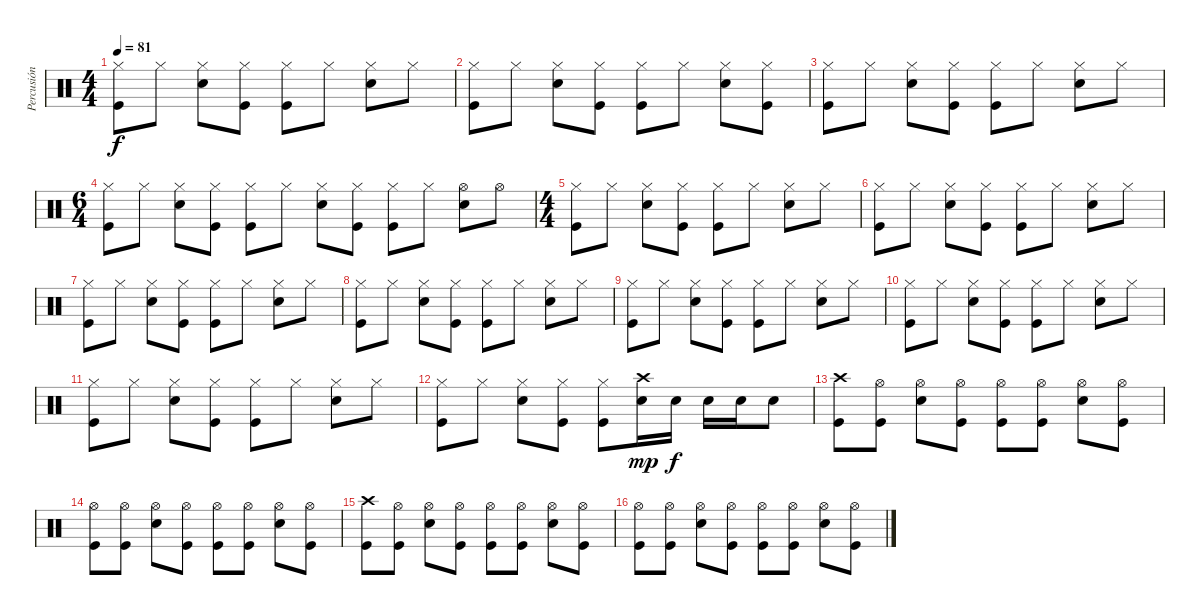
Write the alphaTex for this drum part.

\track ("Percusión" "Percusión") {instrument percussion}
\staff {score}
\articulation defaults
\ts (4 4)
\tempo 81
\clef neutral
\ks c
("Hi-Hat (closed)" "Kick (hit)").8{dy f} "Hi-Hat (closed)".8 ("Hi-Hat (closed)" "Electric Snare (hit)").8 ("Hi-Hat (closed)" "Kick (hit)").8 ("Hi-Hat (closed)" "Kick (hit)").8 "Hi-Hat (closed)".8 ("Hi-Hat (closed)" "Electric Snare (hit)").8 "Hi-Hat (closed)".8 |
("Hi-Hat (closed)" "Kick (hit)").8 "Hi-Hat (closed)".8 ("Hi-Hat (closed)" "Electric Snare (hit)").8 ("Hi-Hat (closed)" "Kick (hit)").8 ("Hi-Hat (closed)" "Kick (hit)").8 "Hi-Hat (closed)".8 ("Hi-Hat (closed)" "Electric Snare (hit)").8 ("Hi-Hat (closed)" "Kick (hit)").8 |
("Hi-Hat (closed)" "Kick (hit)").8 "Hi-Hat (closed)".8 ("Hi-Hat (closed)" "Electric Snare (hit)").8 ("Hi-Hat (closed)" "Kick (hit)").8 ("Hi-Hat (closed)" "Kick (hit)").8 "Hi-Hat (closed)".8 ("Hi-Hat (closed)" "Electric Snare (hit)").8 "Hi-Hat (closed)".8 |
\ts (6 4)
("Hi-Hat (closed)" "Kick (hit)").8 "Hi-Hat (closed)".8 ("Hi-Hat (closed)" "Electric Snare (hit)").8 ("Hi-Hat (closed)" "Kick (hit)").8 ("Hi-Hat (closed)" "Kick (hit)").8 "Hi-Hat (closed)".8 ("Hi-Hat (closed)" "Electric Snare (hit)").8 ("Hi-Hat (closed)" "Kick (hit)").8 ("Hi-Hat (closed)" "Kick (hit)").8 "Hi-Hat (closed)".8 ("Hi-Hat (open)" "Electric Snare (hit)").8 "Hi-Hat (open)".8 |
\ts (4 4)
("Hi-Hat (closed)" "Kick (hit)").8 "Hi-Hat (closed)".8 ("Hi-Hat (closed)" "Electric Snare (hit)").8 ("Hi-Hat (closed)" "Kick (hit)").8 ("Hi-Hat (closed)" "Kick (hit)").8 "Hi-Hat (closed)".8 ("Hi-Hat (closed)" "Electric Snare (hit)").8 "Hi-Hat (closed)".8 |
("Hi-Hat (closed)" "Kick (hit)").8 "Hi-Hat (closed)".8 ("Hi-Hat (closed)" "Electric Snare (hit)").8 ("Hi-Hat (closed)" "Kick (hit)").8 ("Hi-Hat (closed)" "Kick (hit)").8 "Hi-Hat (closed)".8 ("Hi-Hat (closed)" "Electric Snare (hit)").8 "Hi-Hat (closed)".8 |
("Hi-Hat (closed)" "Kick (hit)").8 "Hi-Hat (closed)".8 ("Hi-Hat (closed)" "Electric Snare (hit)").8 ("Hi-Hat (closed)" "Kick (hit)").8 ("Hi-Hat (closed)" "Kick (hit)").8 "Hi-Hat (closed)".8 ("Hi-Hat (closed)" "Electric Snare (hit)").8 "Hi-Hat (closed)".8 |
("Hi-Hat (closed)" "Kick (hit)").8 "Hi-Hat (closed)".8 ("Hi-Hat (closed)" "Electric Snare (hit)").8 ("Hi-Hat (closed)" "Kick (hit)").8 ("Hi-Hat (closed)" "Kick (hit)").8 "Hi-Hat (closed)".8 ("Hi-Hat (closed)" "Electric Snare (hit)").8 "Hi-Hat (closed)".8 |
("Hi-Hat (closed)" "Kick (hit)").8 "Hi-Hat (closed)".8 ("Hi-Hat (closed)" "Electric Snare (hit)").8 ("Hi-Hat (closed)" "Kick (hit)").8 ("Hi-Hat (closed)" "Kick (hit)").8 "Hi-Hat (closed)".8 ("Hi-Hat (closed)" "Electric Snare (hit)").8 "Hi-Hat (closed)".8 |
("Hi-Hat (closed)" "Kick (hit)").8 "Hi-Hat (closed)".8 ("Hi-Hat (closed)" "Electric Snare (hit)").8 ("Hi-Hat (closed)" "Kick (hit)").8 ("Hi-Hat (closed)" "Kick (hit)").8 "Hi-Hat (closed)".8 ("Hi-Hat (closed)" "Electric Snare (hit)").8 "Hi-Hat (closed)".8 |
("Hi-Hat (closed)" "Kick (hit)").8 "Hi-Hat (closed)".8 ("Hi-Hat (closed)" "Electric Snare (hit)").8 ("Hi-Hat (closed)" "Kick (hit)").8 ("Hi-Hat (closed)" "Kick (hit)").8 "Hi-Hat (closed)".8 ("Hi-Hat (closed)" "Electric Snare (hit)").8 "Hi-Hat (closed)".8 |
("Hi-Hat (closed)" "Kick (hit)").8 "Hi-Hat (closed)".8 ("Hi-Hat (closed)" "Electric Snare (hit)").8 ("Hi-Hat (closed)" "Kick (hit)").8 ("Hi-Hat (closed)" "Kick (hit)").8 ("Crash high (hit)" "Electric Snare (hit)").16{dy mp} "Electric Snare (hit)".16{dy f} "Electric Snare (hit)".16 "Electric Snare (hit)".16 "Electric Snare (hit)".8 |
("Crash high (hit)" "Kick (hit)").8 ("Hi-Hat (open)" "Kick (hit)").8 ("Hi-Hat (open)" "Electric Snare (hit)").8 ("Hi-Hat (open)" "Kick (hit)").8 ("Hi-Hat (open)" "Kick (hit)").8 ("Hi-Hat (open)" "Kick (hit)").8 ("Hi-Hat (open)" "Electric Snare (hit)").8 ("Hi-Hat (open)" "Kick (hit)").8 |
("Hi-Hat (open)" "Kick (hit)").8 ("Hi-Hat (open)" "Kick (hit)").8 ("Hi-Hat (open)" "Electric Snare (hit)").8 ("Hi-Hat (open)" "Kick (hit)").8 ("Hi-Hat (open)" "Kick (hit)").8 ("Hi-Hat (open)" "Kick (hit)").8 ("Hi-Hat (open)" "Electric Snare (hit)").8 ("Hi-Hat (open)" "Kick (hit)").8 |
("Crash high (hit)" "Kick (hit)").8 ("Hi-Hat (open)" "Kick (hit)").8 ("Hi-Hat (open)" "Electric Snare (hit)").8 ("Hi-Hat (open)" "Kick (hit)").8 ("Hi-Hat (open)" "Kick (hit)").8 ("Hi-Hat (open)" "Kick (hit)").8 ("Hi-Hat (open)" "Electric Snare (hit)").8 ("Hi-Hat (open)" "Kick (hit)").8 |
("Hi-Hat (open)" "Kick (hit)").8 ("Hi-Hat (open)" "Kick (hit)").8 ("Hi-Hat (open)" "Electric Snare (hit)").8 ("Hi-Hat (open)" "Kick (hit)").8 ("Hi-Hat (open)" "Kick (hit)").8 ("Hi-Hat (open)" "Kick (hit)").8 ("Hi-Hat (open)" "Electric Snare (hit)").8 ("Hi-Hat (open)" "Kick (hit)").8
